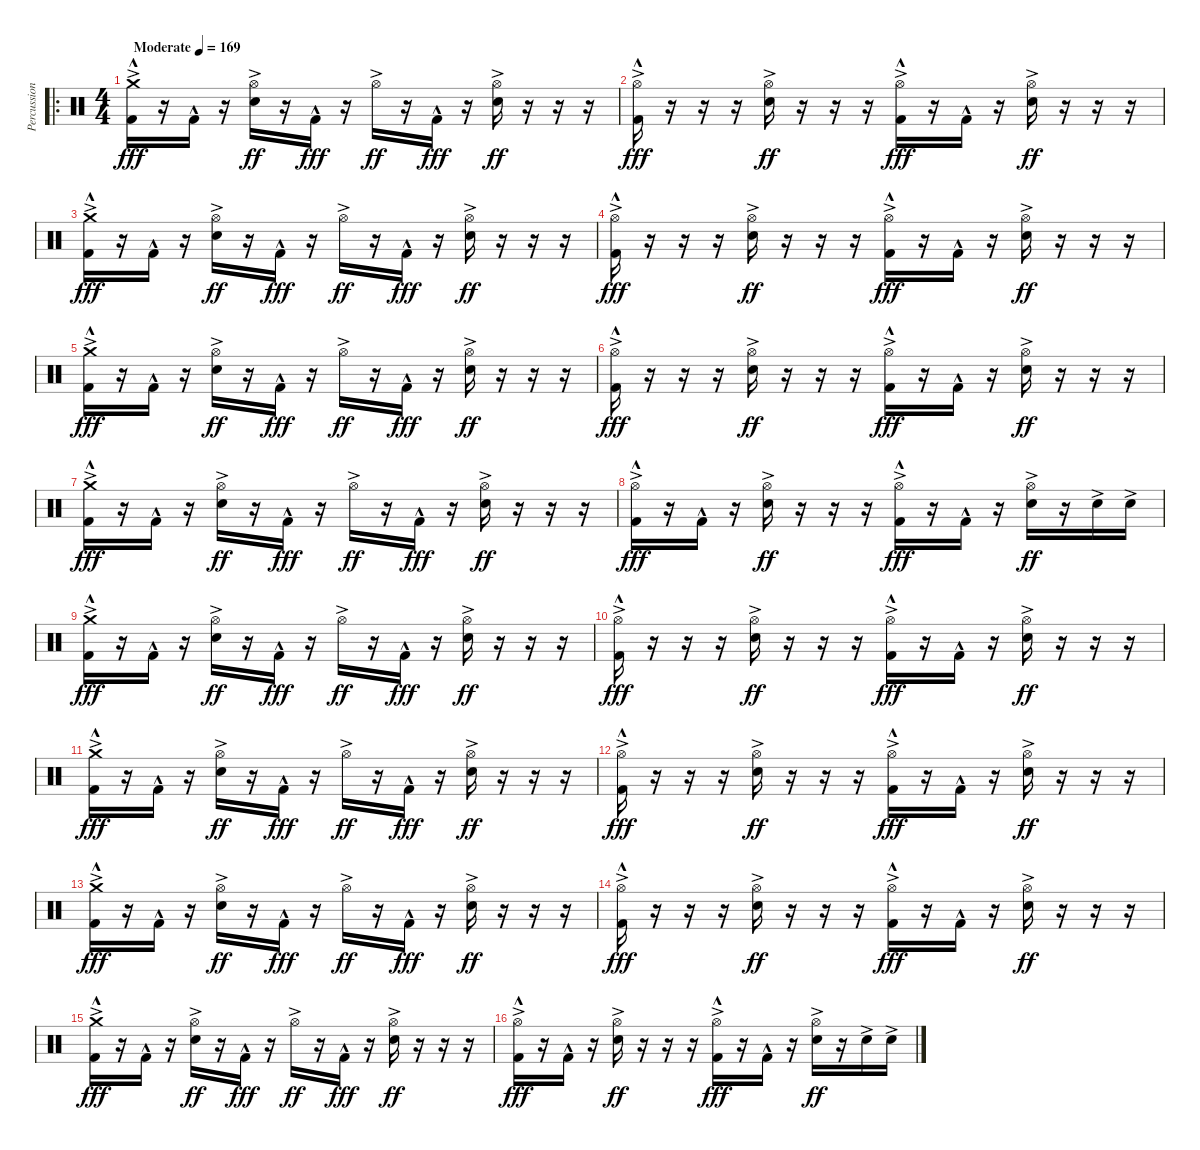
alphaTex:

\track ("Percussion" "Percussion") {instrument percussion}
\staff {score}
\articulation defaults
\ro
\ts (4 4)
\tempo (169 "Moderate")
\clef neutral
\ks c
("Crash medium (hit)"{ac} "Kick (hit) 2"{hac}).16{dy fff} r.16 "Kick (hit) 2"{hac}.16 r.16 ("Hi-Hat (open)"{ac} "Snare (hit) 2"{ac}).16{dy ff} r.16 "Kick (hit) 2"{hac}.16{dy fff} r.16 "Hi-Hat (open)"{ac}.16{dy ff} r.16 "Kick (hit) 2"{hac}.16{dy fff} r.16 ("Hi-Hat (open)"{ac} "Snare (hit) 2"{ac}).16{dy ff} r.16 r.16 r.16 |
("Hi-Hat (open)"{ac} "Kick (hit) 2"{hac}).16{dy fff} r.16 r.16 r.16 ("Hi-Hat (open)"{ac} "Snare (hit) 2"{ac}).16{dy ff} r.16 r.16 r.16 ("Hi-Hat (open)"{ac} "Kick (hit) 2"{hac}).16{dy fff} r.16 "Kick (hit) 2"{hac}.16 r.16 ("Hi-Hat (open)"{ac} "Snare (hit) 2"{ac}).16{dy ff} r.16 r.16 r.16 |
("Crash medium (hit)"{ac} "Kick (hit) 2"{hac}).16{dy fff} r.16 "Kick (hit) 2"{hac}.16 r.16 ("Hi-Hat (open)"{ac} "Snare (hit) 2"{ac}).16{dy ff} r.16 "Kick (hit) 2"{hac}.16{dy fff} r.16 "Hi-Hat (open)"{ac}.16{dy ff} r.16 "Kick (hit) 2"{hac}.16{dy fff} r.16 ("Hi-Hat (open)"{ac} "Snare (hit) 2"{ac}).16{dy ff} r.16 r.16 r.16 |
("Hi-Hat (open)"{ac} "Kick (hit) 2"{hac}).16{dy fff} r.16 r.16 r.16 ("Hi-Hat (open)"{ac} "Snare (hit) 2"{ac}).16{dy ff} r.16 r.16 r.16 ("Hi-Hat (open)"{ac} "Kick (hit) 2"{hac}).16{dy fff} r.16 "Kick (hit) 2"{hac}.16 r.16 ("Hi-Hat (open)"{ac} "Snare (hit) 2"{ac}).16{dy ff} r.16 r.16 r.16 |
("Crash medium (hit)"{ac} "Kick (hit) 2"{hac}).16{dy fff} r.16 "Kick (hit) 2"{hac}.16 r.16 ("Hi-Hat (open)"{ac} "Snare (hit) 2"{ac}).16{dy ff} r.16 "Kick (hit) 2"{hac}.16{dy fff} r.16 "Hi-Hat (open)"{ac}.16{dy ff} r.16 "Kick (hit) 2"{hac}.16{dy fff} r.16 ("Hi-Hat (open)"{ac} "Snare (hit) 2"{ac}).16{dy ff} r.16 r.16 r.16 |
("Hi-Hat (open)"{ac} "Kick (hit) 2"{hac}).16{dy fff} r.16 r.16 r.16 ("Hi-Hat (open)"{ac} "Snare (hit) 2"{ac}).16{dy ff} r.16 r.16 r.16 ("Hi-Hat (open)"{ac} "Kick (hit) 2"{hac}).16{dy fff} r.16 "Kick (hit) 2"{hac}.16 r.16 ("Hi-Hat (open)"{ac} "Snare (hit) 2"{ac}).16{dy ff} r.16 r.16 r.16 |
("Crash medium (hit)"{ac} "Kick (hit) 2"{hac}).16{dy fff} r.16 "Kick (hit) 2"{hac}.16 r.16 ("Hi-Hat (open)"{ac} "Snare (hit) 2"{ac}).16{dy ff} r.16 "Kick (hit) 2"{hac}.16{dy fff} r.16 "Hi-Hat (open)"{ac}.16{dy ff} r.16 "Kick (hit) 2"{hac}.16{dy fff} r.16 ("Hi-Hat (open)"{ac} "Snare (hit) 2"{ac}).16{dy ff} r.16 r.16 r.16 |
("Hi-Hat (open)"{ac} "Kick (hit) 2"{hac}).16{dy fff} r.16 "Kick (hit) 2"{hac}.16 r.16 ("Hi-Hat (open)"{ac} "Snare (hit) 2"{ac}).16{dy ff} r.16 r.16 r.16 ("Hi-Hat (open)"{ac} "Kick (hit) 2"{hac}).16{dy fff} r.16 "Kick (hit) 2"{hac}.16 r.16 ("Hi-Hat (open)"{ac} "Snare (hit) 2"{ac}).16{dy ff} r.16 "Snare (hit) 2"{ac}.16 "Snare (hit) 2"{ac}.16 |
("Crash medium (hit)"{ac} "Kick (hit) 2"{hac}).16{dy fff} r.16 "Kick (hit) 2"{hac}.16 r.16 ("Hi-Hat (open)"{ac} "Snare (hit) 2"{ac}).16{dy ff} r.16 "Kick (hit) 2"{hac}.16{dy fff} r.16 "Hi-Hat (open)"{ac}.16{dy ff} r.16 "Kick (hit) 2"{hac}.16{dy fff} r.16 ("Hi-Hat (open)"{ac} "Snare (hit) 2"{ac}).16{dy ff} r.16 r.16 r.16 |
("Hi-Hat (open)"{ac} "Kick (hit) 2"{hac}).16{dy fff} r.16 r.16 r.16 ("Hi-Hat (open)"{ac} "Snare (hit) 2"{ac}).16{dy ff} r.16 r.16 r.16 ("Hi-Hat (open)"{ac} "Kick (hit) 2"{hac}).16{dy fff} r.16 "Kick (hit) 2"{hac}.16 r.16 ("Hi-Hat (open)"{ac} "Snare (hit) 2"{ac}).16{dy ff} r.16 r.16 r.16 |
("Crash medium (hit)"{ac} "Kick (hit) 2"{hac}).16{dy fff} r.16 "Kick (hit) 2"{hac}.16 r.16 ("Hi-Hat (open)"{ac} "Snare (hit) 2"{ac}).16{dy ff} r.16 "Kick (hit) 2"{hac}.16{dy fff} r.16 "Hi-Hat (open)"{ac}.16{dy ff} r.16 "Kick (hit) 2"{hac}.16{dy fff} r.16 ("Hi-Hat (open)"{ac} "Snare (hit) 2"{ac}).16{dy ff} r.16 r.16 r.16 |
("Hi-Hat (open)"{ac} "Kick (hit) 2"{hac}).16{dy fff} r.16 r.16 r.16 ("Hi-Hat (open)"{ac} "Snare (hit) 2"{ac}).16{dy ff} r.16 r.16 r.16 ("Hi-Hat (open)"{ac} "Kick (hit) 2"{hac}).16{dy fff} r.16 "Kick (hit) 2"{hac}.16 r.16 ("Hi-Hat (open)"{ac} "Snare (hit) 2"{ac}).16{dy ff} r.16 r.16 r.16 |
("Crash medium (hit)"{ac} "Kick (hit) 2"{hac}).16{dy fff} r.16 "Kick (hit) 2"{hac}.16 r.16 ("Hi-Hat (open)"{ac} "Snare (hit) 2"{ac}).16{dy ff} r.16 "Kick (hit) 2"{hac}.16{dy fff} r.16 "Hi-Hat (open)"{ac}.16{dy ff} r.16 "Kick (hit) 2"{hac}.16{dy fff} r.16 ("Hi-Hat (open)"{ac} "Snare (hit) 2"{ac}).16{dy ff} r.16 r.16 r.16 |
("Hi-Hat (open)"{ac} "Kick (hit) 2"{hac}).16{dy fff} r.16 r.16 r.16 ("Hi-Hat (open)"{ac} "Snare (hit) 2"{ac}).16{dy ff} r.16 r.16 r.16 ("Hi-Hat (open)"{ac} "Kick (hit) 2"{hac}).16{dy fff} r.16 "Kick (hit) 2"{hac}.16 r.16 ("Hi-Hat (open)"{ac} "Snare (hit) 2"{ac}).16{dy ff} r.16 r.16 r.16 |
("Crash medium (hit)"{ac} "Kick (hit) 2"{hac}).16{dy fff} r.16 "Kick (hit) 2"{hac}.16 r.16 ("Hi-Hat (open)"{ac} "Snare (hit) 2"{ac}).16{dy ff} r.16 "Kick (hit) 2"{hac}.16{dy fff} r.16 "Hi-Hat (open)"{ac}.16{dy ff} r.16 "Kick (hit) 2"{hac}.16{dy fff} r.16 ("Hi-Hat (open)"{ac} "Snare (hit) 2"{ac}).16{dy ff} r.16 r.16 r.16 |
("Hi-Hat (open)"{ac} "Kick (hit) 2"{hac}).16{dy fff} r.16 "Kick (hit) 2"{hac}.16 r.16 ("Hi-Hat (open)"{ac} "Snare (hit) 2"{ac}).16{dy ff} r.16 r.16 r.16 ("Hi-Hat (open)"{ac} "Kick (hit) 2"{hac}).16{dy fff} r.16 "Kick (hit) 2"{hac}.16 r.16 ("Hi-Hat (open)"{ac} "Snare (hit) 2"{ac}).16{dy ff} r.16 "Snare (hit) 2"{ac}.16 "Snare (hit) 2"{ac}.16
